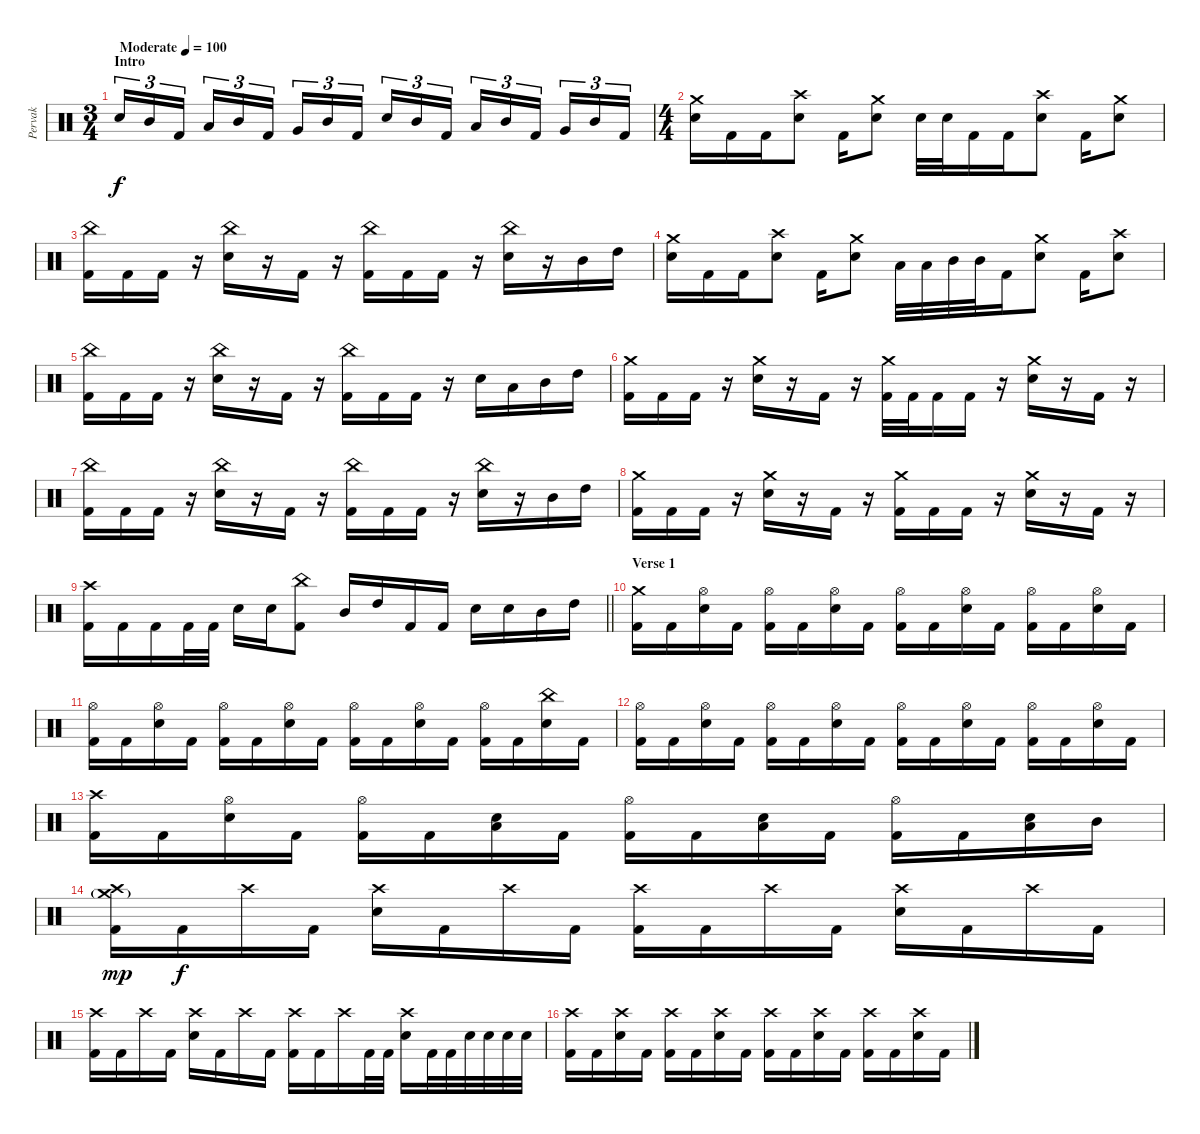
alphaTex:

\track ("Pervak" "Pervak") {instrument percussion}
\staff {score}
\articulation defaults
\ts (3 4)
\section ("" "Intro")
\tempo (100 "Moderate")
\clef neutral
\ks c "Electric Snare (hit)".16{tu (3 2) dy f} "Mid Tom (hit)".16{tu (3 2)} "Kick (hit) 2".16{tu (3 2) beam splitsecondary} "Low Floor Tom (hit)".16{tu (3 2)} "Mid Tom (hit)".16{tu (3 2)} "Kick (hit) 2".16{tu (3 2)} "Very Low Tom (hit)".16{tu (3 2)} "Mid Tom (hit)".16{tu (3 2)} "Kick (hit) 2".16{tu (3 2) beam splitsecondary} "Electric Snare (hit)".16{tu (3 2)} "Mid Tom (hit)".16{tu (3 2)} "Kick (hit) 2".16{tu (3 2)} "Low Floor Tom (hit)".16{tu (3 2)} "Mid Tom (hit)".16{tu (3 2)} "Kick (hit) 2".16{tu (3 2) beam splitsecondary} "Very Low Tom (hit)".16{tu (3 2)} "Mid Tom (hit)".16{tu (3 2)} "Kick (hit) 2".16{tu (3 2)}
|
\ts (4 4)
("Crash medium (hit)" "Electric Snare (hit)").16 "Kick (hit) 2".16 "Kick (hit) 2".16 ("Crash high (hit)" "Electric Snare (hit)").8 "Kick (hit) 2".16 ("Crash medium (hit)" "Electric Snare (hit)").8 "Electric Snare (hit)".32 "Electric Snare (hit)".32 "Kick (hit) 2".16 "Kick (hit) 2".16 ("Crash high (hit)" "Electric Snare (hit)").8 "Kick (hit) 2".16 ("Crash medium (hit)" "Electric Snare (hit)").8 |
("China (hit)" "Kick (hit) 2").16 "Kick (hit) 2".16 "Kick (hit) 2".16 r.16 ("China (hit)" "Electric Snare (hit)").16 r.16 "Kick (hit) 2".16 r.16 ("China (hit)" "Kick (hit) 2").16 "Kick (hit) 2".16 "Kick (hit) 2".16 r.16 ("China (hit)" "Electric Snare (hit)").16 r.16 "Mid Tom (hit)".16 "High Tom (hit)".16 |
("Crash medium (hit)" "Electric Snare (hit)").16 "Kick (hit) 2".16 "Kick (hit) 2".16 ("Crash high (hit)" "Electric Snare (hit)").8 "Kick (hit) 2".16 ("Crash medium (hit)" "Electric Snare (hit)").8 "Low Tom (hit)".32 "Low Tom (hit)".32 "Mid Tom (hit)".32 "Mid Tom (hit)".32 "Kick (hit) 2".16 ("Crash medium (hit)" "Electric Snare (hit)").8 "Kick (hit) 2".16 ("Crash high (hit)" "Electric Snare (hit)").8 |
("China (hit)" "Kick (hit) 2").16 "Kick (hit) 2".16 "Kick (hit) 2".16 r.16 ("China (hit)" "Electric Snare (hit)").16 r.16 "Kick (hit) 2".16 r.16 ("China (hit)" "Kick (hit) 2").16 "Kick (hit) 2".16 "Kick (hit) 2".16 r.16 "Electric Snare (hit)".16 "Low Tom (hit)".16 "Mid Tom (hit)".16 "High Tom (hit)".16 |
("Crash medium (hit)" "Kick (hit) 2").16 "Kick (hit) 2".16 "Kick (hit) 2".16 r.16 ("Crash medium (hit)" "Electric Snare (hit)").16 r.16 "Kick (hit) 2".16 r.16 ("Crash medium (hit)" "Kick (hit) 2").32 "Kick (hit) 2".32 "Kick (hit) 2".16 "Kick (hit) 2".16 r.16 ("Crash medium (hit)" "Electric Snare (hit)").16 r.16 "Kick (hit) 2".16 r.16 |
("China (hit)" "Kick (hit) 2").16 "Kick (hit) 2".16 "Kick (hit) 2".16 r.16 ("China (hit)" "Electric Snare (hit)").16 r.16 "Kick (hit) 2".16 r.16 ("China (hit)" "Kick (hit) 2").16 "Kick (hit) 2".16 "Kick (hit) 2".16 r.16 ("China (hit)" "Electric Snare (hit)").16 r.16 "Mid Tom (hit)".16 "High Tom (hit)".16 |
("Crash medium (hit)" "Kick (hit) 2").16 "Kick (hit) 2".16 "Kick (hit) 2".16 r.16 ("Crash medium (hit)" "Electric Snare (hit)").16 r.16 "Kick (hit) 2".16 r.16 ("Crash medium (hit)" "Kick (hit) 2").16 "Kick (hit) 2".16 "Kick (hit) 2".16 r.16 ("Crash medium (hit)" "Electric Snare (hit)").16 r.16 "Kick (hit) 2".16 r.16 |
\barLineRight lightlight
("Crash high (hit)" "Kick (hit) 2").16 "Kick (hit) 2".16 "Kick (hit) 2".16 "Kick (hit) 2".32 "Kick (hit) 2".32 "Electric Snare (hit)".16 "Electric Snare (hit)".16 ("China (hit)" "Kick (hit) 2").8 "Mid Tom (hit)".16 "High Tom (hit)".16 "Kick (hit) 2".16 "Kick (hit) 2".16 "Electric Snare (hit)".16 "Electric Snare (hit)".16 "Mid Tom (hit)".16 "High Tom (hit)".16 |
\section ("" "Verse 1")
("Crash medium (hit)" "Kick (hit) 2").16 "Kick (hit) 2".16 ("Hi-Hat (open)" "Electric Snare (hit)").16 "Kick (hit) 2".16 ("Hi-Hat (open)" "Kick (hit) 2").16 "Kick (hit) 2".16 ("Hi-Hat (open)" "Electric Snare (hit)").16 "Kick (hit) 2".16 ("Hi-Hat (open)" "Kick (hit) 2").16 "Kick (hit) 2".16 ("Hi-Hat (open)" "Electric Snare (hit)").16 "Kick (hit) 2".16 ("Hi-Hat (open)" "Kick (hit) 2").16 "Kick (hit) 2".16 ("Hi-Hat (open)" "Electric Snare (hit)").16 "Kick (hit) 2".16 |
("Hi-Hat (open)" "Kick (hit) 2").16 "Kick (hit) 2".16 ("Hi-Hat (open)" "Electric Snare (hit)").16 "Kick (hit) 2".16 ("Hi-Hat (open)" "Kick (hit) 2").16 "Kick (hit) 2".16 ("Hi-Hat (open)" "Electric Snare (hit)").16 "Kick (hit) 2".16 ("Hi-Hat (open)" "Kick (hit) 2").16 "Kick (hit) 2".16 ("Hi-Hat (open)" "Electric Snare (hit)").16 "Kick (hit) 2".16 ("Hi-Hat (open)" "Kick (hit) 2").16 "Kick (hit) 2".16 ("China (hit)" "Electric Snare (hit)").16 "Kick (hit) 2".16 |
("Hi-Hat (open)" "Kick (hit) 2").16 "Kick (hit) 2".16 ("Hi-Hat (open)" "Electric Snare (hit)").16 "Kick (hit) 2".16 ("Hi-Hat (open)" "Kick (hit) 2").16 "Kick (hit) 2".16 ("Hi-Hat (open)" "Electric Snare (hit)").16 "Kick (hit) 2".16 ("Hi-Hat (open)" "Kick (hit) 2").16 "Kick (hit) 2".16 ("Hi-Hat (open)" "Electric Snare (hit)").16 "Kick (hit) 2".16 ("Hi-Hat (open)" "Kick (hit) 2").16 "Kick (hit) 2".16 ("Hi-Hat (open)" "Electric Snare (hit)").16 "Kick (hit) 2".16 |
("Crash high (hit)" "Kick (hit) 2").16 "Kick (hit) 2".16 ("Hi-Hat (open)" "Electric Snare (hit)").16 "Kick (hit) 2".16 ("Hi-Hat (open)" "Kick (hit) 2").16 "Kick (hit) 2".16 ("Low Tom (hit)" "Electric Snare (hit)").16 "Kick (hit) 2".16 ("Hi-Hat (open)" "Kick (hit) 2").16 "Kick (hit) 2".16 ("Low Tom (hit)" "Electric Snare (hit)").16 "Kick (hit) 2".16 ("Hi-Hat (open)" "Kick (hit) 2").16 "Kick (hit) 2".16 ("Low Tom (hit)" "Electric Snare (hit)").16 "Mid Tom (hit)".16 |
("Crash high (hit)" "Crash medium (hit)"{g} "Kick (hit) 2").16{dy mp} "Kick (hit) 2".16{dy f} "Crash high (hit)".16 "Kick (hit) 2".16 ("Crash high (hit)" "Electric Snare (hit)").16 "Kick (hit) 2".16 "Crash high (hit)".16 "Kick (hit) 2".16 ("Crash high (hit)" "Kick (hit) 2").16 "Kick (hit) 2".16 "Crash high (hit)".16 "Kick (hit) 2".16 ("Crash high (hit)" "Electric Snare (hit)").16 "Kick (hit) 2".16 "Crash high (hit)".16 "Kick (hit) 2".16 |
("Crash high (hit)" "Kick (hit) 2").16 "Kick (hit) 2".16 "Crash high (hit)".16 "Kick (hit) 2".16 ("Crash high (hit)" "Electric Snare (hit)").16 "Kick (hit) 2".16 "Crash high (hit)".16 "Kick (hit) 2".16 ("Crash high (hit)" "Kick (hit) 2").16 "Kick (hit) 2".16 "Crash high (hit)".16 "Kick (hit) 2".32 "Kick (hit) 2".32 ("Crash high (hit)" "Electric Snare (hit)").16 "Kick (hit) 2".32 "Kick (hit) 2".32 "Electric Snare (hit)".32 "Electric Snare (hit)".32 "Electric Snare (hit)".32 "Electric Snare (hit)".32 |
("Crash high (hit)" "Kick (hit) 2").16 "Kick (hit) 2".16 ("Crash high (hit)" "Electric Snare (hit)").16 "Kick (hit) 2".16 ("Crash high (hit)" "Kick (hit) 2").16 "Kick (hit) 2".16 ("Crash high (hit)" "Electric Snare (hit)").16 "Kick (hit) 2".16 ("Crash high (hit)" "Kick (hit) 2").16 "Kick (hit) 2".16 ("Crash high (hit)" "Electric Snare (hit)").16 "Kick (hit) 2".16 ("Crash high (hit)" "Kick (hit) 2").16 "Kick (hit) 2".16 ("Crash high (hit)" "Electric Snare (hit)").16 "Kick (hit) 2".16
